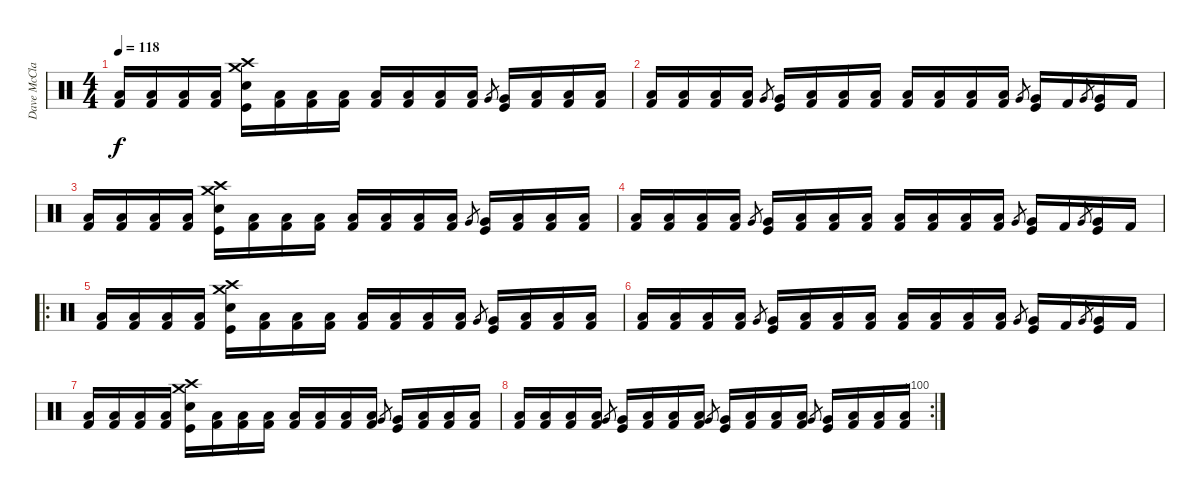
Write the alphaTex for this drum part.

\track ("Dave McClain" "Dave McCla") {instrument percussion}
\staff {score}
\articulation defaults
\ts (4 4)
\tempo 118
\clef neutral
\ks c
("Kick (hit) 2" "Low Floor Tom (hit)").16{dy f} ("Kick (hit) 2" "Low Floor Tom (hit)").16 ("Kick (hit) 2" "Low Floor Tom (hit)").16 ("Kick (hit) 2" "Low Floor Tom (hit)").16 ("Kick (hit)" "Snare (hit) 2" "Crash medium (hit)" "Crash high (hit)").16 ("Kick (hit) 2" "Low Floor Tom (hit)").16 ("Kick (hit) 2" "Low Floor Tom (hit)").16 ("Kick (hit) 2" "Low Floor Tom (hit)").16 ("Kick (hit) 2" "Low Floor Tom (hit)").16 ("Kick (hit) 2" "Low Floor Tom (hit)").16 ("Kick (hit) 2" "Low Floor Tom (hit)").16 ("Kick (hit) 2" "Low Floor Tom (hit)").16 "Very Low Tom (hit)".8{gr} ("Kick (hit)" "Very Low Tom (hit)").16 ("Kick (hit) 2" "Low Floor Tom (hit)").16 ("Kick (hit) 2" "Low Floor Tom (hit)").16 ("Kick (hit) 2" "Low Floor Tom (hit)").16 |
("Kick (hit) 2" "Low Floor Tom (hit)").16 ("Kick (hit) 2" "Low Floor Tom (hit)").16 ("Kick (hit) 2" "Low Floor Tom (hit)").16 ("Kick (hit) 2" "Low Floor Tom (hit)").16 "Very Low Tom (hit)".8{gr} ("Kick (hit)" "Very Low Tom (hit)").16 ("Kick (hit) 2" "Low Floor Tom (hit)").16 ("Kick (hit) 2" "Low Floor Tom (hit)").16 ("Kick (hit) 2" "Low Floor Tom (hit)").16 ("Kick (hit) 2" "Low Floor Tom (hit)").16 ("Kick (hit) 2" "Low Floor Tom (hit)").16 ("Kick (hit) 2" "Low Floor Tom (hit)").16 ("Kick (hit) 2" "Low Floor Tom (hit)").16 "Very Low Tom (hit)".8{gr} ("Kick (hit)" "Very Low Tom (hit)").16 "Kick (hit) 2".16 "Very Low Tom (hit)".8{gr} ("Kick (hit)" "Very Low Tom (hit)").16 "Kick (hit) 2".16 |
("Kick (hit) 2" "Low Floor Tom (hit)").16 ("Kick (hit) 2" "Low Floor Tom (hit)").16 ("Kick (hit) 2" "Low Floor Tom (hit)").16 ("Kick (hit) 2" "Low Floor Tom (hit)").16 ("Kick (hit)" "Snare (hit) 2" "Crash medium (hit)" "Crash high (hit)").16 ("Kick (hit) 2" "Low Floor Tom (hit)").16 ("Kick (hit) 2" "Low Floor Tom (hit)").16 ("Kick (hit) 2" "Low Floor Tom (hit)").16 ("Kick (hit) 2" "Low Floor Tom (hit)").16 ("Kick (hit) 2" "Low Floor Tom (hit)").16 ("Kick (hit) 2" "Low Floor Tom (hit)").16 ("Kick (hit) 2" "Low Floor Tom (hit)").16 "Very Low Tom (hit)".8{gr} ("Kick (hit)" "Very Low Tom (hit)").16 ("Kick (hit) 2" "Low Floor Tom (hit)").16 ("Kick (hit) 2" "Low Floor Tom (hit)").16 ("Kick (hit) 2" "Low Floor Tom (hit)").16 |
("Kick (hit) 2" "Low Floor Tom (hit)").16 ("Kick (hit) 2" "Low Floor Tom (hit)").16 ("Kick (hit) 2" "Low Floor Tom (hit)").16 ("Kick (hit) 2" "Low Floor Tom (hit)").16 "Very Low Tom (hit)".8{gr} ("Kick (hit)" "Very Low Tom (hit)").16 ("Kick (hit) 2" "Low Floor Tom (hit)").16 ("Kick (hit) 2" "Low Floor Tom (hit)").16 ("Kick (hit) 2" "Low Floor Tom (hit)").16 ("Kick (hit) 2" "Low Floor Tom (hit)").16 ("Kick (hit) 2" "Low Floor Tom (hit)").16 ("Kick (hit) 2" "Low Floor Tom (hit)").16 ("Kick (hit) 2" "Low Floor Tom (hit)").16 "Very Low Tom (hit)".8{gr} ("Kick (hit)" "Very Low Tom (hit)").16 "Kick (hit) 2".16 "Very Low Tom (hit)".8{gr} ("Kick (hit)" "Very Low Tom (hit)").16 "Kick (hit) 2".16 |
\ro
("Kick (hit) 2" "Low Floor Tom (hit)").16 ("Kick (hit) 2" "Low Floor Tom (hit)").16 ("Kick (hit) 2" "Low Floor Tom (hit)").16 ("Kick (hit) 2" "Low Floor Tom (hit)").16 ("Kick (hit)" "Snare (hit) 2" "Crash medium (hit)" "Crash high (hit)").16 ("Kick (hit) 2" "Low Floor Tom (hit)").16 ("Kick (hit) 2" "Low Floor Tom (hit)").16 ("Kick (hit) 2" "Low Floor Tom (hit)").16 ("Kick (hit) 2" "Low Floor Tom (hit)").16 ("Kick (hit) 2" "Low Floor Tom (hit)").16 ("Kick (hit) 2" "Low Floor Tom (hit)").16 ("Kick (hit) 2" "Low Floor Tom (hit)").16 "Very Low Tom (hit)".8{gr} ("Kick (hit)" "Very Low Tom (hit)").16 ("Kick (hit) 2" "Low Floor Tom (hit)").16 ("Kick (hit) 2" "Low Floor Tom (hit)").16 ("Kick (hit) 2" "Low Floor Tom (hit)").16 |
("Kick (hit) 2" "Low Floor Tom (hit)").16 ("Kick (hit) 2" "Low Floor Tom (hit)").16 ("Kick (hit) 2" "Low Floor Tom (hit)").16 ("Kick (hit) 2" "Low Floor Tom (hit)").16 "Very Low Tom (hit)".8{gr} ("Kick (hit)" "Very Low Tom (hit)").16 ("Kick (hit) 2" "Low Floor Tom (hit)").16 ("Kick (hit) 2" "Low Floor Tom (hit)").16 ("Kick (hit) 2" "Low Floor Tom (hit)").16 ("Kick (hit) 2" "Low Floor Tom (hit)").16 ("Kick (hit) 2" "Low Floor Tom (hit)").16 ("Kick (hit) 2" "Low Floor Tom (hit)").16 ("Kick (hit) 2" "Low Floor Tom (hit)").16 "Very Low Tom (hit)".8{gr} ("Kick (hit)" "Very Low Tom (hit)").16 "Kick (hit) 2".16 "Very Low Tom (hit)".8{gr} ("Kick (hit)" "Very Low Tom (hit)").16 "Kick (hit) 2".16 |
("Kick (hit) 2" "Low Floor Tom (hit)").16 ("Kick (hit) 2" "Low Floor Tom (hit)").16 ("Kick (hit) 2" "Low Floor Tom (hit)").16 ("Kick (hit) 2" "Low Floor Tom (hit)").16 ("Kick (hit)" "Snare (hit) 2" "Crash medium (hit)" "Crash high (hit)").16 ("Kick (hit) 2" "Low Floor Tom (hit)").16 ("Kick (hit) 2" "Low Floor Tom (hit)").16 ("Kick (hit) 2" "Low Floor Tom (hit)").16 ("Kick (hit) 2" "Low Floor Tom (hit)").16 ("Kick (hit) 2" "Low Floor Tom (hit)").16 ("Kick (hit) 2" "Low Floor Tom (hit)").16 ("Kick (hit) 2" "Low Floor Tom (hit)").16 "Very Low Tom (hit)".8{gr} ("Kick (hit)" "Very Low Tom (hit)").16 ("Kick (hit) 2" "Low Floor Tom (hit)").16 ("Kick (hit) 2" "Low Floor Tom (hit)").16 ("Kick (hit) 2" "Low Floor Tom (hit)").16 |
\rc 100
("Kick (hit) 2" "Low Floor Tom (hit)").16 ("Kick (hit) 2" "Low Floor Tom (hit)").16 ("Kick (hit) 2" "Low Floor Tom (hit)").16 ("Kick (hit) 2" "Low Floor Tom (hit)").16 "Very Low Tom (hit)".8{gr} ("Kick (hit)" "Very Low Tom (hit)").16 ("Kick (hit) 2" "Low Floor Tom (hit)").16 ("Kick (hit) 2" "Low Floor Tom (hit)").16 ("Kick (hit) 2" "Low Floor Tom (hit)").16 "Very Low Tom (hit)".8{gr} ("Kick (hit)" "Very Low Tom (hit)").16 ("Kick (hit) 2" "Low Floor Tom (hit)").16 ("Kick (hit) 2" "Low Floor Tom (hit)").16 ("Kick (hit) 2" "Low Floor Tom (hit)").16 "Very Low Tom (hit)".8{gr} ("Kick (hit)" "Very Low Tom (hit)").16 ("Kick (hit) 2" "Low Floor Tom (hit)").16 ("Kick (hit) 2" "Low Floor Tom (hit)").16 ("Kick (hit) 2" "Low Floor Tom (hit)").16
